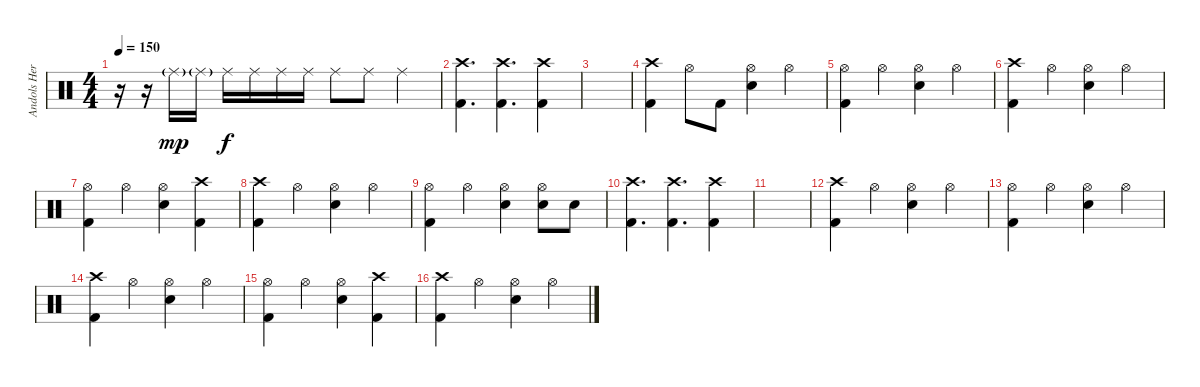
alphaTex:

\track ("Andols Herrick" "Andols Her") {instrument percussion}
\staff {score}
\articulation defaults
\ts (4 4)
\tempo 150
\clef neutral
\ks c
r.16{dy f} r.16 "Ride (middle)"{g}.16{dy mp} "Ride (middle)"{g}.16 "Ride (middle)".16{dy f} "Ride (middle)".16 "Ride (middle)".16 "Ride (middle)".16 "Ride (middle)".8 "Ride (middle)".8 "Ride (middle)".4 |
("Crash high (hit)" "Kick (hit) 2").4{d} ("Crash high (hit)" "Kick (hit) 2").4{d} ("Crash high (hit)" "Kick (hit) 2").4 |
|
("Crash high (hit)" "Kick (hit) 2").4 "Hi-Hat (open)".8 "Kick (hit) 2".8 ("Hi-Hat (open)" "Electric Snare (hit)").4 "Hi-Hat (open)".4 |
("Hi-Hat (open)" "Kick (hit) 2").4 "Hi-Hat (open)".4 ("Hi-Hat (open)" "Electric Snare (hit)").4 "Hi-Hat (open)".4 |
("Crash high (hit)" "Kick (hit) 2").4 "Hi-Hat (open)".4 ("Hi-Hat (open)" "Electric Snare (hit)").4 "Hi-Hat (open)".4 |
("Hi-Hat (open)" "Kick (hit) 2").4 "Hi-Hat (open)".4 ("Hi-Hat (open)" "Electric Snare (hit)").4 ("Crash high (hit)" "Kick (hit) 2").4 |
("Crash high (hit)" "Kick (hit) 2").4 "Hi-Hat (open)".4 ("Hi-Hat (open)" "Electric Snare (hit)").4 "Hi-Hat (open)".4 |
("Hi-Hat (open)" "Kick (hit) 2").4 "Hi-Hat (open)".4 ("Hi-Hat (open)" "Electric Snare (hit)").4 ("Hi-Hat (open)" "Electric Snare (hit)").8 "Electric Snare (hit)".8 |
("Crash high (hit)" "Kick (hit) 2").4{d} ("Crash high (hit)" "Kick (hit) 2").4{d} ("Crash high (hit)" "Kick (hit) 2").4 |
|
("Crash high (hit)" "Kick (hit) 2").4 "Hi-Hat (open)".4 ("Hi-Hat (open)" "Electric Snare (hit)").4 "Hi-Hat (open)".4 |
("Hi-Hat (open)" "Kick (hit) 2").4 "Hi-Hat (open)".4 ("Hi-Hat (open)" "Electric Snare (hit)").4 "Hi-Hat (open)".4 |
("Crash high (hit)" "Kick (hit) 2").4 "Hi-Hat (open)".4 ("Hi-Hat (open)" "Electric Snare (hit)").4 "Hi-Hat (open)".4 |
("Hi-Hat (open)" "Kick (hit) 2").4 "Hi-Hat (open)".4 ("Hi-Hat (open)" "Electric Snare (hit)").4 ("Crash high (hit)" "Kick (hit) 2").4 |
("Crash high (hit)" "Kick (hit) 2").4 "Hi-Hat (open)".4 ("Hi-Hat (open)" "Electric Snare (hit)").4 "Hi-Hat (open)".4
